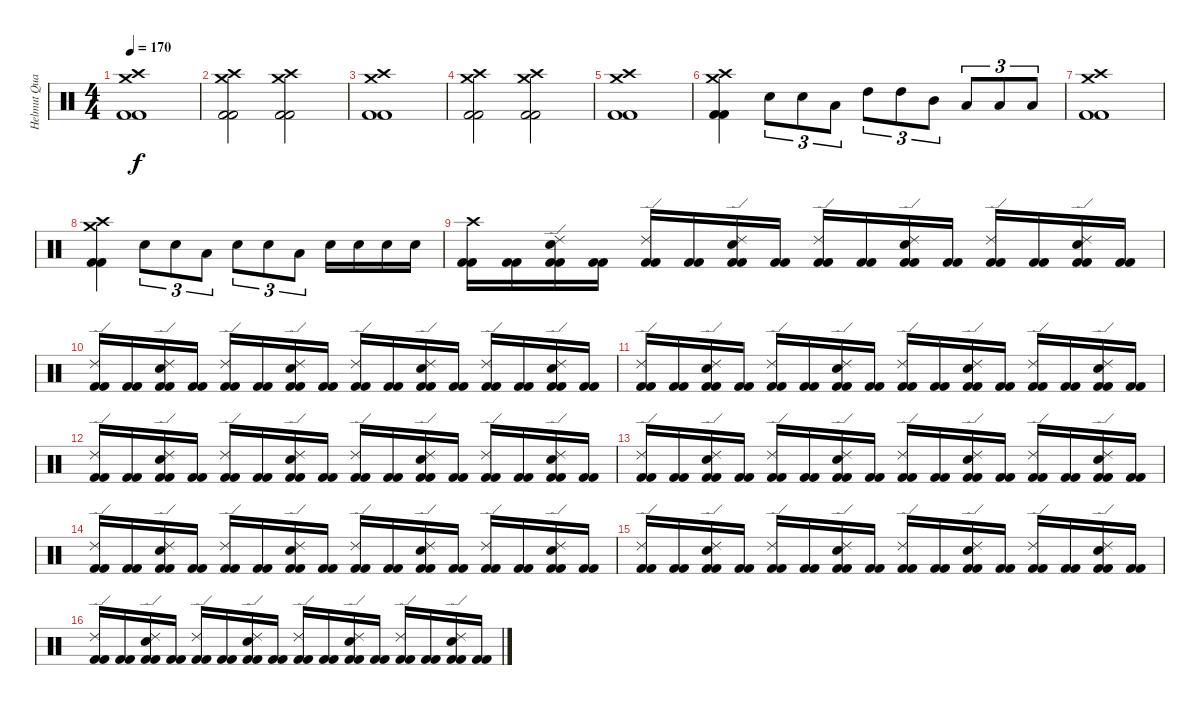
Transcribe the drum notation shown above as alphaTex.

\track ("Helmut Quacken" "Helmut Qua") {instrument percussion}
\staff {score}
\articulation defaults
\ts (4 4)
\tempo 170
\clef neutral
\ks c
("Crash high (hit)" "Crash medium (hit)" "Kick (hit) 2" "Kick (hit) 2").1{dy f} |
("Crash high (hit)" "Crash medium (hit)" "Kick (hit) 2" "Kick (hit) 2").2 ("Crash high (hit)" "Crash medium (hit)" "Kick (hit) 2" "Kick (hit) 2").2 |
("Crash high (hit)" "Crash medium (hit)" "Kick (hit) 2" "Kick (hit) 2").1 |
("Crash high (hit)" "Crash medium (hit)" "Kick (hit) 2" "Kick (hit) 2").2 ("Crash high (hit)" "Crash medium (hit)" "Kick (hit) 2" "Kick (hit) 2").2 |
("Crash high (hit)" "Crash medium (hit)" "Kick (hit) 2" "Kick (hit) 2").1 |
("Crash high (hit)" "Crash medium (hit)" "Kick (hit) 2" "Kick (hit) 2").4 "Electric Snare (hit)".8{tu (3 2)} "Electric Snare (hit)".8{tu (3 2)} "Low Tom (hit)".8{tu (3 2)} "High Tom (hit)".8{tu (3 2)} "High Tom (hit)".8{tu (3 2)} "Mid Tom (hit)".8{tu (3 2)} "Low Tom (hit)".8{tu (3 2)} "Low Tom (hit)".8{tu (3 2)} "Low Tom (hit)".8{tu (3 2)} |
("Crash high (hit)" "Crash medium (hit)" "Kick (hit) 2" "Kick (hit) 2").1 |
("Crash high (hit)" "Crash medium (hit)" "Kick (hit) 2" "Kick (hit) 2").4 "Electric Snare (hit)".8{tu (3 2)} "Electric Snare (hit)".8{tu (3 2)} "Low Tom (hit)".8{tu (3 2)} "Electric Snare (hit)".8{tu (3 2)} "Electric Snare (hit)".8{tu (3 2)} "Low Tom (hit)".8{tu (3 2)} "Electric Snare (hit)".16 "Electric Snare (hit)".16 "Electric Snare (hit)".16 "Electric Snare (hit)".16 |
("Crash high (hit)" "Kick (hit) 2" "Kick (hit) 2").16 ("Kick (hit) 2" "Kick (hit) 2").16 ("Ride (edge) 2" "Electric Snare (hit)" "Kick (hit) 2" "Kick (hit) 2").16 ("Kick (hit) 2" "Kick (hit) 2").16 ("Ride (edge) 2" "Kick (hit) 2" "Kick (hit) 2").16 ("Kick (hit) 2" "Kick (hit) 2").16 ("Ride (edge) 2" "Electric Snare (hit)" "Kick (hit) 2" "Kick (hit) 2").16 ("Kick (hit) 2" "Kick (hit) 2").16 ("Ride (edge) 2" "Kick (hit) 2" "Kick (hit) 2").16 ("Kick (hit) 2" "Kick (hit) 2").16 ("Ride (edge) 2" "Electric Snare (hit)" "Kick (hit) 2" "Kick (hit) 2").16 ("Kick (hit) 2" "Kick (hit) 2").16 ("Ride (edge) 2" "Kick (hit) 2" "Kick (hit) 2").16 ("Kick (hit) 2" "Kick (hit) 2").16 ("Ride (edge) 2" "Electric Snare (hit)" "Kick (hit) 2" "Kick (hit) 2").16 ("Kick (hit) 2" "Kick (hit) 2").16 |
("Ride (edge) 2" "Kick (hit) 2" "Kick (hit) 2").16 ("Kick (hit) 2" "Kick (hit) 2").16 ("Ride (edge) 2" "Electric Snare (hit)" "Kick (hit) 2" "Kick (hit) 2").16 ("Kick (hit) 2" "Kick (hit) 2").16 ("Ride (edge) 2" "Kick (hit) 2" "Kick (hit) 2").16 ("Kick (hit) 2" "Kick (hit) 2").16 ("Ride (edge) 2" "Electric Snare (hit)" "Kick (hit) 2" "Kick (hit) 2").16 ("Kick (hit) 2" "Kick (hit) 2").16 ("Ride (edge) 2" "Kick (hit) 2" "Kick (hit) 2").16 ("Kick (hit) 2" "Kick (hit) 2").16 ("Ride (edge) 2" "Electric Snare (hit)" "Kick (hit) 2" "Kick (hit) 2").16 ("Kick (hit) 2" "Kick (hit) 2").16 ("Ride (edge) 2" "Kick (hit) 2" "Kick (hit) 2").16 ("Kick (hit) 2" "Kick (hit) 2").16 ("Ride (edge) 2" "Electric Snare (hit)" "Kick (hit) 2" "Kick (hit) 2").16 ("Kick (hit) 2" "Kick (hit) 2").16 |
("Ride (edge) 2" "Kick (hit) 2" "Kick (hit) 2").16 ("Kick (hit) 2" "Kick (hit) 2").16 ("Ride (edge) 2" "Electric Snare (hit)" "Kick (hit) 2" "Kick (hit) 2").16 ("Kick (hit) 2" "Kick (hit) 2").16 ("Ride (edge) 2" "Kick (hit) 2" "Kick (hit) 2").16 ("Kick (hit) 2" "Kick (hit) 2").16 ("Ride (edge) 2" "Electric Snare (hit)" "Kick (hit) 2" "Kick (hit) 2").16 ("Kick (hit) 2" "Kick (hit) 2").16 ("Ride (edge) 2" "Kick (hit) 2" "Kick (hit) 2").16 ("Kick (hit) 2" "Kick (hit) 2").16 ("Ride (edge) 2" "Electric Snare (hit)" "Kick (hit) 2" "Kick (hit) 2").16 ("Kick (hit) 2" "Kick (hit) 2").16 ("Ride (edge) 2" "Kick (hit) 2" "Kick (hit) 2").16 ("Kick (hit) 2" "Kick (hit) 2").16 ("Ride (edge) 2" "Electric Snare (hit)" "Kick (hit) 2" "Kick (hit) 2").16 ("Kick (hit) 2" "Kick (hit) 2").16 |
("Ride (edge) 2" "Kick (hit) 2" "Kick (hit) 2").16 ("Kick (hit) 2" "Kick (hit) 2").16 ("Ride (edge) 2" "Electric Snare (hit)" "Kick (hit) 2" "Kick (hit) 2").16 ("Kick (hit) 2" "Kick (hit) 2").16 ("Ride (edge) 2" "Kick (hit) 2" "Kick (hit) 2").16 ("Kick (hit) 2" "Kick (hit) 2").16 ("Ride (edge) 2" "Electric Snare (hit)" "Kick (hit) 2" "Kick (hit) 2").16 ("Kick (hit) 2" "Kick (hit) 2").16 ("Ride (edge) 2" "Kick (hit) 2" "Kick (hit) 2").16 ("Kick (hit) 2" "Kick (hit) 2").16 ("Ride (edge) 2" "Electric Snare (hit)" "Kick (hit) 2" "Kick (hit) 2").16 ("Kick (hit) 2" "Kick (hit) 2").16 ("Ride (edge) 2" "Kick (hit) 2" "Kick (hit) 2").16 ("Kick (hit) 2" "Kick (hit) 2").16 ("Ride (edge) 2" "Electric Snare (hit)" "Kick (hit) 2" "Kick (hit) 2").16 ("Kick (hit) 2" "Kick (hit) 2").16 |
("Ride (edge) 2" "Kick (hit) 2" "Kick (hit) 2").16 ("Kick (hit) 2" "Kick (hit) 2").16 ("Ride (edge) 2" "Electric Snare (hit)" "Kick (hit) 2" "Kick (hit) 2").16 ("Kick (hit) 2" "Kick (hit) 2").16 ("Ride (edge) 2" "Kick (hit) 2" "Kick (hit) 2").16 ("Kick (hit) 2" "Kick (hit) 2").16 ("Ride (edge) 2" "Electric Snare (hit)" "Kick (hit) 2" "Kick (hit) 2").16 ("Kick (hit) 2" "Kick (hit) 2").16 ("Ride (edge) 2" "Kick (hit) 2" "Kick (hit) 2").16 ("Kick (hit) 2" "Kick (hit) 2").16 ("Ride (edge) 2" "Electric Snare (hit)" "Kick (hit) 2" "Kick (hit) 2").16 ("Kick (hit) 2" "Kick (hit) 2").16 ("Ride (edge) 2" "Kick (hit) 2" "Kick (hit) 2").16 ("Kick (hit) 2" "Kick (hit) 2").16 ("Ride (edge) 2" "Electric Snare (hit)" "Kick (hit) 2" "Kick (hit) 2").16 ("Kick (hit) 2" "Kick (hit) 2").16 |
("Ride (edge) 2" "Kick (hit) 2" "Kick (hit) 2").16 ("Kick (hit) 2" "Kick (hit) 2").16 ("Ride (edge) 2" "Electric Snare (hit)" "Kick (hit) 2" "Kick (hit) 2").16 ("Kick (hit) 2" "Kick (hit) 2").16 ("Ride (edge) 2" "Kick (hit) 2" "Kick (hit) 2").16 ("Kick (hit) 2" "Kick (hit) 2").16 ("Ride (edge) 2" "Electric Snare (hit)" "Kick (hit) 2" "Kick (hit) 2").16 ("Kick (hit) 2" "Kick (hit) 2").16 ("Ride (edge) 2" "Kick (hit) 2" "Kick (hit) 2").16 ("Kick (hit) 2" "Kick (hit) 2").16 ("Ride (edge) 2" "Electric Snare (hit)" "Kick (hit) 2" "Kick (hit) 2").16 ("Kick (hit) 2" "Kick (hit) 2").16 ("Ride (edge) 2" "Kick (hit) 2" "Kick (hit) 2").16 ("Kick (hit) 2" "Kick (hit) 2").16 ("Ride (edge) 2" "Electric Snare (hit)" "Kick (hit) 2" "Kick (hit) 2").16 ("Kick (hit) 2" "Kick (hit) 2").16 |
("Ride (edge) 2" "Kick (hit) 2" "Kick (hit) 2").16 ("Kick (hit) 2" "Kick (hit) 2").16 ("Ride (edge) 2" "Electric Snare (hit)" "Kick (hit) 2" "Kick (hit) 2").16 ("Kick (hit) 2" "Kick (hit) 2").16 ("Ride (edge) 2" "Kick (hit) 2" "Kick (hit) 2").16 ("Kick (hit) 2" "Kick (hit) 2").16 ("Ride (edge) 2" "Electric Snare (hit)" "Kick (hit) 2" "Kick (hit) 2").16 ("Kick (hit) 2" "Kick (hit) 2").16 ("Ride (edge) 2" "Kick (hit) 2" "Kick (hit) 2").16 ("Kick (hit) 2" "Kick (hit) 2").16 ("Ride (edge) 2" "Electric Snare (hit)" "Kick (hit) 2" "Kick (hit) 2").16 ("Kick (hit) 2" "Kick (hit) 2").16 ("Ride (edge) 2" "Kick (hit) 2" "Kick (hit) 2").16 ("Kick (hit) 2" "Kick (hit) 2").16 ("Ride (edge) 2" "Electric Snare (hit)" "Kick (hit) 2" "Kick (hit) 2").16 ("Kick (hit) 2" "Kick (hit) 2").16 |
("Ride (edge) 2" "Kick (hit) 2" "Kick (hit) 2").16 ("Kick (hit) 2" "Kick (hit) 2").16 ("Ride (edge) 2" "Electric Snare (hit)" "Kick (hit) 2" "Kick (hit) 2").16 ("Kick (hit) 2" "Kick (hit) 2").16 ("Ride (edge) 2" "Kick (hit) 2" "Kick (hit) 2").16 ("Kick (hit) 2" "Kick (hit) 2").16 ("Ride (edge) 2" "Electric Snare (hit)" "Kick (hit) 2" "Kick (hit) 2").16 ("Kick (hit) 2" "Kick (hit) 2").16 ("Ride (edge) 2" "Kick (hit) 2" "Kick (hit) 2").16 ("Kick (hit) 2" "Kick (hit) 2").16 ("Ride (edge) 2" "Electric Snare (hit)" "Kick (hit) 2" "Kick (hit) 2").16 ("Kick (hit) 2" "Kick (hit) 2").16 ("Ride (edge) 2" "Kick (hit) 2" "Kick (hit) 2").16 ("Kick (hit) 2" "Kick (hit) 2").16 ("Ride (edge) 2" "Electric Snare (hit)" "Kick (hit) 2" "Kick (hit) 2").16 ("Kick (hit) 2" "Kick (hit) 2").16
